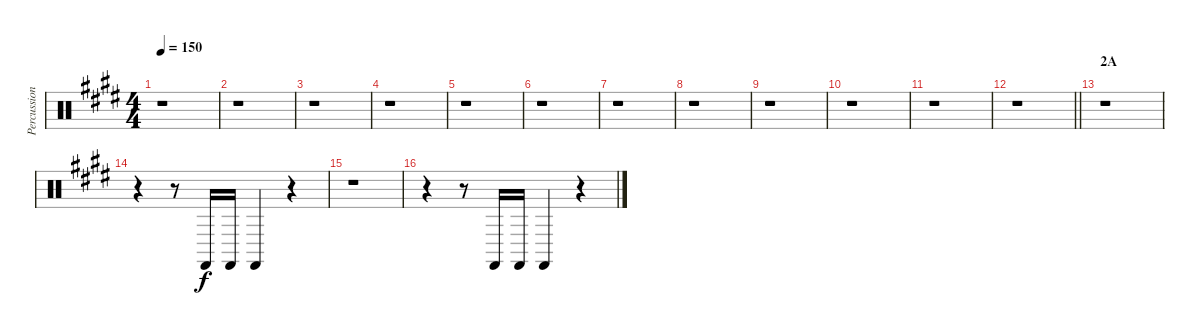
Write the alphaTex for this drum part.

\track ("Percussion" "Percussion") {instrument percussion}
\staff {score}
\articulation defaults
\ts (4 4)
\tempo 150
\clef neutral
\ks e
r.1{dy f} |
r.1 |
r.1 |
r.1 |
r.1 |
r.1 |
r.1 |
r.1 |
r.1 |
r.1 |
r.1 |
\barLineRight lightlight
r.1 |
\section ("" "2A")
r.1 |
r.4 r.8 "Castanets (hit)".16 "Castanets (hit)".16 "Castanets (hit)".4 r.4 |
r.1 |
r.4 r.8 "Castanets (hit)".16 "Castanets (hit)".16 "Castanets (hit)".4 r.4
